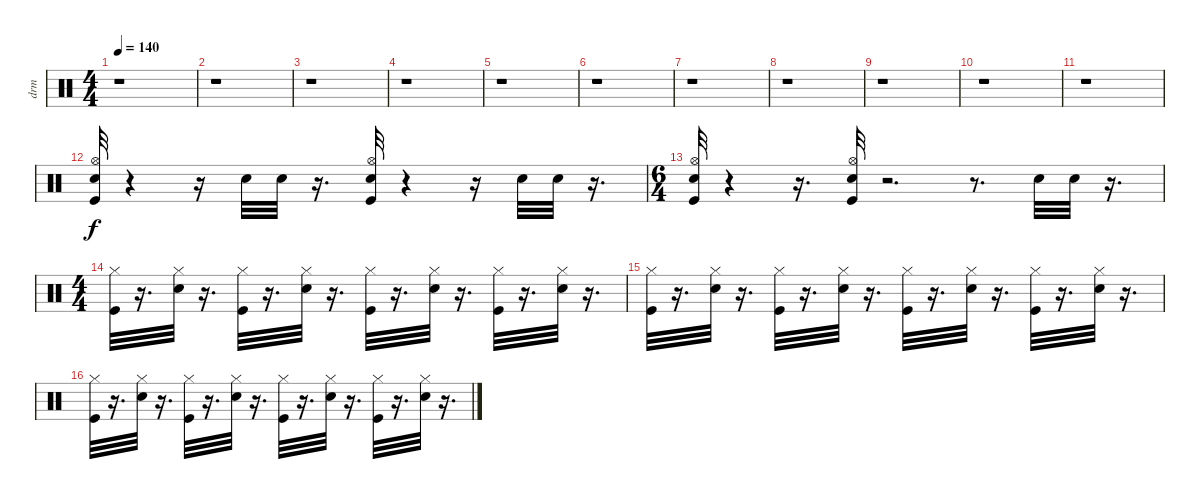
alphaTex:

\track ("drm" "drm") {instrument percussion}
\staff {score}
\articulation defaults
\ts (4 4)
\tempo 140
\clef neutral
\ks c
r.1{dy f} |
r.1 |
r.1 |
r.1 |
r.1 |
r.1 |
r.1 |
r.1 |
r.1 |
r.1 |
r.1 |
("Snare (hit) 2" "Hi-Hat (open)" "Kick (hit)").32 r.4 r.16 "Snare (hit) 2".32 "Snare (hit) 2".32 r.16{d} ("Snare (hit) 2" "Hi-Hat (open)" "Kick (hit)").32 r.4 r.16 "Snare (hit) 2".32 "Snare (hit) 2".32 r.16{d} |
\ts (6 4)
("Snare (hit) 2" "Kick (hit)" "Hi-Hat (open)").32 r.4 r.16{d} ("Snare (hit) 2" "Kick (hit)" "Hi-Hat (open)").32 r.2{d} r.8{d} "Snare (hit) 2".32 "Snare (hit) 2".32 r.16{d} |
\ts (4 4)
("Kick (hit)" "Hi-Hat (closed)").32 r.16{d} ("Snare (hit) 2" "Hi-Hat (closed)").32 r.16{d} ("Kick (hit)" "Hi-Hat (closed)").32 r.16{d} ("Snare (hit) 2" "Hi-Hat (closed)").32 r.16{d} ("Kick (hit)" "Hi-Hat (closed)").32 r.16{d} ("Snare (hit) 2" "Hi-Hat (closed)").32 r.16{d} ("Kick (hit)" "Hi-Hat (closed)").32 r.16{d} ("Snare (hit) 2" "Hi-Hat (closed)").32 r.16{d} |
("Kick (hit)" "Hi-Hat (closed)").32 r.16{d} ("Snare (hit) 2" "Hi-Hat (closed)").32 r.16{d} ("Kick (hit)" "Hi-Hat (closed)").32 r.16{d} ("Snare (hit) 2" "Hi-Hat (closed)").32 r.16{d} ("Kick (hit)" "Hi-Hat (closed)").32 r.16{d} ("Snare (hit) 2" "Hi-Hat (closed)").32 r.16{d} ("Kick (hit)" "Hi-Hat (closed)").32 r.16{d} ("Snare (hit) 2" "Hi-Hat (closed)").32 r.16{d} |
("Kick (hit)" "Hi-Hat (closed)").32 r.16{d} ("Snare (hit) 2" "Hi-Hat (closed)").32 r.16{d} ("Kick (hit)" "Hi-Hat (closed)").32 r.16{d} ("Snare (hit) 2" "Hi-Hat (closed)").32 r.16{d} ("Kick (hit)" "Hi-Hat (closed)").32 r.16{d} ("Snare (hit) 2" "Hi-Hat (closed)").32 r.16{d} ("Kick (hit)" "Hi-Hat (closed)").32 r.16{d} ("Snare (hit) 2" "Hi-Hat (closed)").32 r.16{d}
